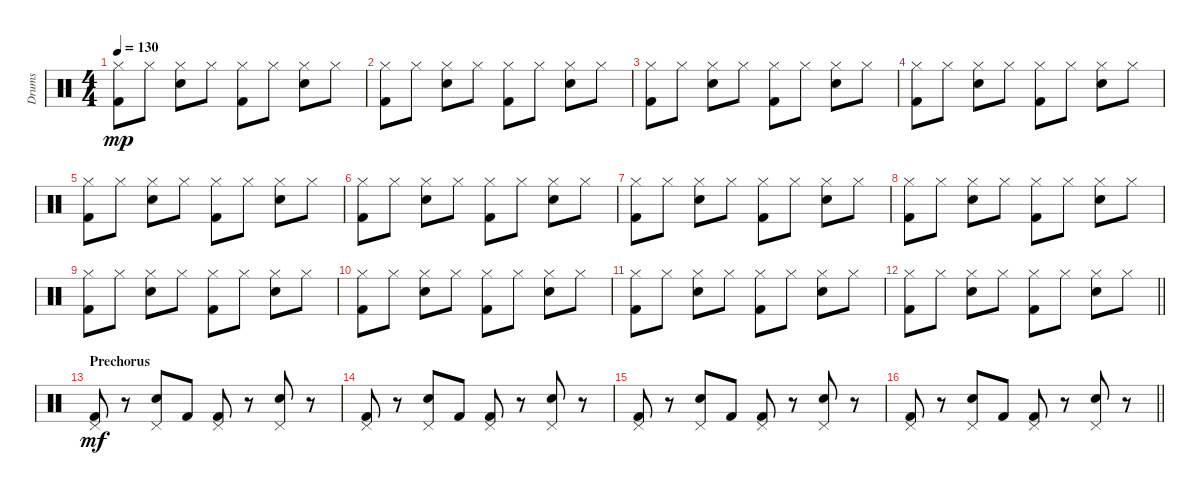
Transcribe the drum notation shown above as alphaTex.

\track ("Drums" "Drums") {instrument percussion}
\staff {score}
\articulation defaults
\ts (4 4)
\tempo 130
\clef neutral
\ks c
("Hi-Hat (closed)" "Kick (hit) 2").8{dy mp} "Hi-Hat (closed)".8 ("Hi-Hat (closed)" "Snare (hit) 2").8 "Hi-Hat (closed)".8 ("Hi-Hat (closed)" "Kick (hit) 2").8 "Hi-Hat (closed)".8 ("Hi-Hat (closed)" "Snare (hit) 2").8 "Hi-Hat (closed)".8 |
("Hi-Hat (closed)" "Kick (hit) 2").8 "Hi-Hat (closed)".8 ("Hi-Hat (closed)" "Snare (hit) 2").8 "Hi-Hat (closed)".8 ("Hi-Hat (closed)" "Kick (hit) 2").8 "Hi-Hat (closed)".8 ("Hi-Hat (closed)" "Snare (hit) 2").8 "Hi-Hat (closed)".8 |
("Hi-Hat (closed)" "Kick (hit) 2").8 "Hi-Hat (closed)".8 ("Hi-Hat (closed)" "Snare (hit) 2").8 "Hi-Hat (closed)".8 ("Hi-Hat (closed)" "Kick (hit) 2").8 "Hi-Hat (closed)".8 ("Hi-Hat (closed)" "Snare (hit) 2").8 "Hi-Hat (closed)".8 |
("Hi-Hat (closed)" "Kick (hit) 2").8 "Hi-Hat (closed)".8 ("Hi-Hat (closed)" "Snare (hit) 2").8 "Hi-Hat (closed)".8 ("Hi-Hat (closed)" "Kick (hit) 2").8 "Hi-Hat (closed)".8 ("Hi-Hat (closed)" "Snare (hit) 2").8 "Hi-Hat (closed)".8 |
("Hi-Hat (closed)" "Kick (hit) 2").8 "Hi-Hat (closed)".8 ("Hi-Hat (closed)" "Snare (hit) 2").8 "Hi-Hat (closed)".8 ("Hi-Hat (closed)" "Kick (hit) 2").8 "Hi-Hat (closed)".8 ("Hi-Hat (closed)" "Snare (hit) 2").8 "Hi-Hat (closed)".8 |
("Hi-Hat (closed)" "Kick (hit) 2").8 "Hi-Hat (closed)".8 ("Hi-Hat (closed)" "Snare (hit) 2").8 "Hi-Hat (closed)".8 ("Hi-Hat (closed)" "Kick (hit) 2").8 "Hi-Hat (closed)".8 ("Hi-Hat (closed)" "Snare (hit) 2").8 "Hi-Hat (closed)".8 |
("Hi-Hat (closed)" "Kick (hit) 2").8 "Hi-Hat (closed)".8 ("Hi-Hat (closed)" "Snare (hit) 2").8 "Hi-Hat (closed)".8 ("Hi-Hat (closed)" "Kick (hit) 2").8 "Hi-Hat (closed)".8 ("Hi-Hat (closed)" "Snare (hit) 2").8 "Hi-Hat (closed)".8 |
("Hi-Hat (closed)" "Kick (hit) 2").8 "Hi-Hat (closed)".8 ("Hi-Hat (closed)" "Snare (hit) 2").8 "Hi-Hat (closed)".8 ("Hi-Hat (closed)" "Kick (hit) 2").8 "Hi-Hat (closed)".8 ("Hi-Hat (closed)" "Snare (hit) 2").8 "Hi-Hat (closed)".8 |
("Hi-Hat (closed)" "Kick (hit) 2").8 "Hi-Hat (closed)".8 ("Hi-Hat (closed)" "Snare (hit) 2").8 "Hi-Hat (closed)".8 ("Hi-Hat (closed)" "Kick (hit) 2").8 "Hi-Hat (closed)".8 ("Hi-Hat (closed)" "Snare (hit) 2").8 "Hi-Hat (closed)".8 |
("Hi-Hat (closed)" "Kick (hit) 2").8 "Hi-Hat (closed)".8 ("Hi-Hat (closed)" "Snare (hit) 2").8 "Hi-Hat (closed)".8 ("Hi-Hat (closed)" "Kick (hit) 2").8 "Hi-Hat (closed)".8 ("Hi-Hat (closed)" "Snare (hit) 2").8 "Hi-Hat (closed)".8 |
("Hi-Hat (closed)" "Kick (hit) 2").8 "Hi-Hat (closed)".8 ("Hi-Hat (closed)" "Snare (hit) 2").8 "Hi-Hat (closed)".8 ("Hi-Hat (closed)" "Kick (hit) 2").8 "Hi-Hat (closed)".8 ("Hi-Hat (closed)" "Snare (hit) 2").8 "Hi-Hat (closed)".8 |
\barLineRight lightlight
("Hi-Hat (closed)" "Kick (hit) 2").8 "Hi-Hat (closed)".8 ("Hi-Hat (closed)" "Snare (hit) 2").8 "Hi-Hat (closed)".8 ("Hi-Hat (closed)" "Kick (hit) 2").8 "Hi-Hat (closed)".8 ("Hi-Hat (closed)" "Snare (hit) 2").8 "Hi-Hat (closed)".8 |
\section ("" "Prechorus")
("Pedal Hi-Hat (hit)" "Kick (hit) 2").8{dy mf} r.8 ("Pedal Hi-Hat (hit)" "Snare (hit) 2").8 "Kick (hit) 2".8 ("Pedal Hi-Hat (hit)" "Kick (hit) 2").8 r.8 ("Pedal Hi-Hat (hit)" "Snare (hit) 2").8 r.8 |
("Pedal Hi-Hat (hit)" "Kick (hit) 2").8 r.8 ("Pedal Hi-Hat (hit)" "Snare (hit) 2").8 "Kick (hit) 2".8 ("Pedal Hi-Hat (hit)" "Kick (hit) 2").8 r.8 ("Pedal Hi-Hat (hit)" "Snare (hit) 2").8 r.8 |
("Pedal Hi-Hat (hit)" "Kick (hit) 2").8 r.8 ("Pedal Hi-Hat (hit)" "Snare (hit) 2").8 "Kick (hit) 2".8 ("Pedal Hi-Hat (hit)" "Kick (hit) 2").8 r.8 ("Pedal Hi-Hat (hit)" "Snare (hit) 2").8 r.8 |
\barLineRight lightlight
("Pedal Hi-Hat (hit)" "Kick (hit) 2").8 r.8 ("Pedal Hi-Hat (hit)" "Snare (hit) 2").8 "Kick (hit) 2".8 ("Pedal Hi-Hat (hit)" "Kick (hit) 2").8 r.8 ("Pedal Hi-Hat (hit)" "Snare (hit) 2").8 r.8
